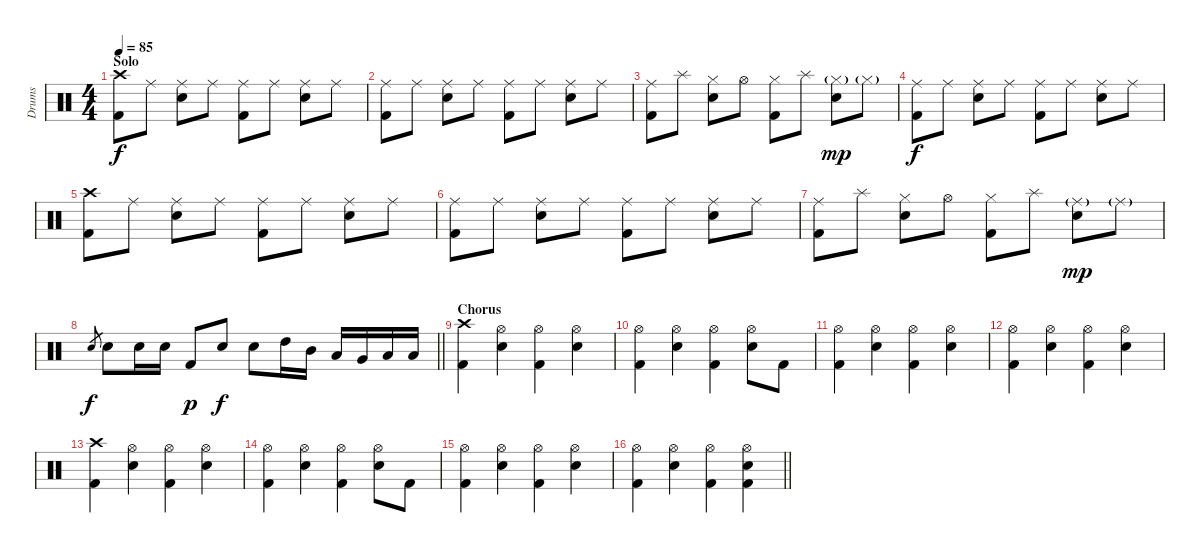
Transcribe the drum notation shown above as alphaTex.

\track ("Drums" "Drums") {instrument percussion}
\staff {score}
\articulation defaults
\ts (4 4)
\section ("" "Solo")
\tempo 85
\clef neutral
\ks c
("Crash high (hit)" "Kick (hit) 2").8{dy f} "Ride (middle)".8 ("Ride (middle)" "Snare (hit) 2").8 "Ride (middle)".8 ("Ride (middle)" "Kick (hit) 2").8 "Ride (middle)".8 ("Ride (middle)" "Snare (hit) 2").8 "Ride (middle)".8 |
("Ride (middle)" "Kick (hit) 2").8 "Ride (middle)".8 ("Ride (middle)" "Snare (hit) 2").8 "Ride (middle)".8 ("Ride (middle)" "Kick (hit) 2").8 "Ride (middle)".8 ("Ride (middle)" "Snare (hit) 2").8 "Ride (middle)".8 |
("Ride (middle)" "Kick (hit) 2").8 "Splash (hit)".8 ("Hi-Hat (closed)" "Snare (hit) 2").8 "Hi-Hat (open)".8 ("Hi-Hat (closed)" "Kick (hit) 2").8 "Splash (hit)".8 ("Hi-Hat (closed)"{g} "Snare (hit) 2").8{dy mp} "Hi-Hat (closed)"{g}.8 |
("Ride (middle)" "Kick (hit) 2").8{dy f} "Ride (middle)".8 ("Ride (middle)" "Snare (hit) 2").8 "Ride (middle)".8 ("Ride (middle)" "Kick (hit) 2").8 "Ride (middle)".8 ("Ride (middle)" "Snare (hit) 2").8 "Ride (middle)".8 |
("Crash high (hit)" "Kick (hit) 2").8 "Ride (middle)".8 ("Ride (middle)" "Snare (hit) 2").8 "Ride (middle)".8 ("Ride (middle)" "Kick (hit) 2").8 "Ride (middle)".8 ("Ride (middle)" "Snare (hit) 2").8 "Ride (middle)".8 |
("Ride (middle)" "Kick (hit) 2").8 "Ride (middle)".8 ("Ride (middle)" "Snare (hit) 2").8 "Ride (middle)".8 ("Ride (middle)" "Kick (hit) 2").8 "Ride (middle)".8 ("Ride (middle)" "Snare (hit) 2").8 "Ride (middle)".8 |
("Ride (middle)" "Kick (hit) 2").8 "Splash (hit)".8 ("Hi-Hat (closed)" "Snare (hit) 2").8 "Hi-Hat (open)".8 ("Hi-Hat (closed)" "Kick (hit) 2").8 "Splash (hit)".8 ("Ride (middle)"{g} "Snare (hit) 2").8{dy mp} "Ride (middle)"{g}.8 |
\barLineRight lightlight "Snare (hit) 2".8{gr dy f} "Snare (hit) 2".8 "Snare (hit) 2".16 "Snare (hit) 2".16 "Kick (hit) 2".8{dy p} "Snare (hit) 2".8{dy f} "Snare (hit) 2".8 "High Tom (hit)".16 "Mid Tom (hit)".16 "Low Tom (hit)".16 "Very Low Tom (hit)".16 "Low Floor Tom (hit)".16 "Low Floor Tom (hit)".16
|
\section ("" "Chorus")
("Crash high (hit)" "Kick (hit) 2").4 ("Hi-Hat (open)" "Snare (hit) 2").4 ("Hi-Hat (open)" "Kick (hit) 2").4 ("Hi-Hat (open)" "Snare (hit) 2").4 |
("Hi-Hat (open)" "Kick (hit) 2").4 ("Hi-Hat (open)" "Snare (hit) 2").4 ("Hi-Hat (open)" "Kick (hit) 2").4 ("Hi-Hat (open)" "Snare (hit) 2").8 "Kick (hit) 2".8 |
("Hi-Hat (open)" "Kick (hit) 2").4 ("Hi-Hat (open)" "Snare (hit) 2").4 ("Hi-Hat (open)" "Kick (hit) 2").4 ("Hi-Hat (open)" "Snare (hit) 2").4 |
("Hi-Hat (open)" "Kick (hit) 2").4 ("Hi-Hat (open)" "Snare (hit) 2").4 ("Hi-Hat (open)" "Kick (hit) 2").4 ("Hi-Hat (open)" "Snare (hit) 2").4 |
("Crash high (hit)" "Kick (hit) 2").4 ("Hi-Hat (open)" "Snare (hit) 2").4 ("Hi-Hat (open)" "Kick (hit) 2").4 ("Hi-Hat (open)" "Snare (hit) 2").4 |
("Hi-Hat (open)" "Kick (hit) 2").4 ("Hi-Hat (open)" "Snare (hit) 2").4 ("Hi-Hat (open)" "Kick (hit) 2").4 ("Hi-Hat (open)" "Snare (hit) 2").8 "Kick (hit) 2".8 |
("Hi-Hat (open)" "Kick (hit) 2").4 ("Hi-Hat (open)" "Snare (hit) 2").4 ("Hi-Hat (open)" "Kick (hit) 2").4 ("Hi-Hat (open)" "Snare (hit) 2").4 |
\barLineRight lightlight
("Hi-Hat (open)" "Kick (hit) 2").4 ("Hi-Hat (open)" "Snare (hit) 2").4 ("Hi-Hat (open)" "Kick (hit) 2").4 ("Hi-Hat (open)" "Snare (hit) 2" "Kick (hit) 2").4
